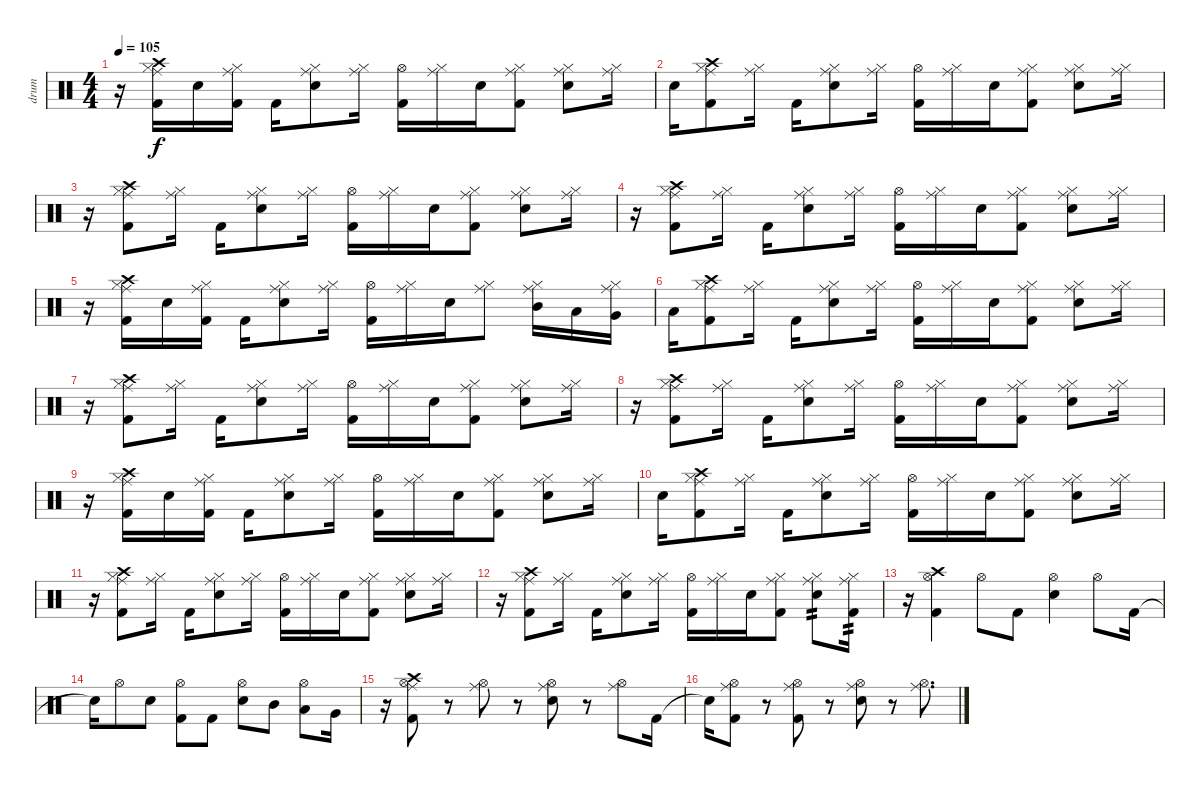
\track ("drum" "drum") {instrument percussion}
\staff {score}
\articulation defaults
\ts (4 4)
\tempo 105
\clef neutral
\ks c
r.16{dy f} ("Crash high (hit)" "Hi-Hat (closed)" "Ride (middle)" "Kick (hit) 2").16 "Electric Snare (hit)".16 ("Hi-Hat (closed)" "Ride (middle)" "Kick (hit) 2").16 "Kick (hit) 2".16 ("Hi-Hat (closed)" "Ride (middle)" "Electric Snare (hit)").8 ("Hi-Hat (closed)" "Ride (middle)").16 ("Hi-Hat (open)" "Kick (hit) 2").16 ("Hi-Hat (closed)" "Ride (middle)").16 "Electric Snare (hit)".16 ("Hi-Hat (closed)" "Ride (middle)" "Kick (hit) 2").8 ("Hi-Hat (closed)" "Ride (middle)" "Electric Snare (hit)").8 ("Hi-Hat (closed)" "Ride (middle)").16 |
"Electric Snare (hit)".16 ("Crash high (hit)" "Hi-Hat (closed)" "Ride (middle)" "Kick (hit) 2").8 ("Hi-Hat (closed)" "Ride (middle)").16 "Kick (hit) 2".16 ("Hi-Hat (closed)" "Ride (middle)" "Electric Snare (hit)").8 ("Hi-Hat (closed)" "Ride (middle)").16 ("Hi-Hat (open)" "Kick (hit) 2").16 ("Hi-Hat (closed)" "Ride (middle)").16 "Electric Snare (hit)".16 ("Hi-Hat (closed)" "Ride (middle)" "Kick (hit) 2").8 ("Hi-Hat (closed)" "Ride (middle)" "Electric Snare (hit)").8 ("Hi-Hat (closed)" "Ride (middle)").16 |
r.16 ("Crash high (hit)" "Hi-Hat (closed)" "Ride (middle)" "Kick (hit) 2").8 ("Hi-Hat (closed)" "Ride (middle)").16 "Kick (hit) 2".16 ("Hi-Hat (closed)" "Ride (middle)" "Electric Snare (hit)").8 ("Hi-Hat (closed)" "Ride (middle)").16 ("Hi-Hat (open)" "Kick (hit) 2").16 ("Hi-Hat (closed)" "Ride (middle)").16 "Electric Snare (hit)".16 ("Hi-Hat (closed)" "Ride (middle)" "Kick (hit) 2").8 ("Hi-Hat (closed)" "Ride (middle)" "Electric Snare (hit)").8 ("Hi-Hat (closed)" "Ride (middle)").16 |
r.16 ("Crash high (hit)" "Hi-Hat (closed)" "Ride (middle)" "Kick (hit) 2").8 ("Hi-Hat (closed)" "Ride (middle)").16 "Kick (hit) 2".16 ("Hi-Hat (closed)" "Ride (middle)" "Electric Snare (hit)").8 ("Hi-Hat (closed)" "Ride (middle)").16 ("Hi-Hat (open)" "Kick (hit) 2").16 ("Hi-Hat (closed)" "Ride (middle)").16 "Electric Snare (hit)".16 ("Hi-Hat (closed)" "Ride (middle)" "Kick (hit) 2").8 ("Hi-Hat (closed)" "Ride (middle)" "Electric Snare (hit)").8 ("Hi-Hat (closed)" "Ride (middle)").16 |
r.16 ("Crash high (hit)" "Hi-Hat (closed)" "Ride (middle)" "Kick (hit) 2").16 "Electric Snare (hit)".16 ("Hi-Hat (closed)" "Ride (middle)" "Kick (hit) 2").16 "Kick (hit) 2".16 ("Hi-Hat (closed)" "Ride (middle)" "Electric Snare (hit)").8 ("Hi-Hat (closed)" "Ride (middle)").16 ("Hi-Hat (open)" "Kick (hit) 2").16 ("Hi-Hat (closed)" "Ride (middle)").16 "Electric Snare (hit)".16 ("Hi-Hat (closed)" "Ride (middle)").8 ("Hi-Hat (closed)" "Ride (middle)" "Mid Tom (hit)").16 "Low Tom (hit)".16 ("Hi-Hat (closed)" "Ride (middle)" "Very Low Tom (hit)").16 |
"Low Floor Tom (hit)".16 ("Crash high (hit)" "Hi-Hat (closed)" "Ride (middle)" "Kick (hit) 2").8 ("Hi-Hat (closed)" "Ride (middle)").16 "Kick (hit) 2".16 ("Hi-Hat (closed)" "Ride (middle)" "Electric Snare (hit)").8 ("Hi-Hat (closed)" "Ride (middle)").16 ("Hi-Hat (open)" "Kick (hit) 2").16 ("Hi-Hat (closed)" "Ride (middle)").16 "Electric Snare (hit)".16 ("Hi-Hat (closed)" "Ride (middle)" "Kick (hit) 2").8 ("Hi-Hat (closed)" "Ride (middle)" "Electric Snare (hit)").8 ("Hi-Hat (closed)" "Ride (middle)").16 |
r.16 ("Crash high (hit)" "Hi-Hat (closed)" "Ride (middle)" "Kick (hit) 2").8 ("Hi-Hat (closed)" "Ride (middle)").16 "Kick (hit) 2".16 ("Hi-Hat (closed)" "Ride (middle)" "Electric Snare (hit)").8 ("Hi-Hat (closed)" "Ride (middle)").16 ("Hi-Hat (open)" "Kick (hit) 2").16 ("Hi-Hat (closed)" "Ride (middle)").16 "Electric Snare (hit)".16 ("Hi-Hat (closed)" "Ride (middle)" "Kick (hit) 2").8 ("Hi-Hat (closed)" "Ride (middle)" "Electric Snare (hit)").8 ("Hi-Hat (closed)" "Ride (middle)").16 |
r.16 ("Crash high (hit)" "Hi-Hat (closed)" "Ride (middle)" "Kick (hit) 2").8 ("Hi-Hat (closed)" "Ride (middle)").16 "Kick (hit) 2".16 ("Hi-Hat (closed)" "Ride (middle)" "Electric Snare (hit)").8 ("Hi-Hat (closed)" "Ride (middle)").16 ("Hi-Hat (open)" "Kick (hit) 2").16 ("Hi-Hat (closed)" "Ride (middle)").16 "Electric Snare (hit)".16 ("Hi-Hat (closed)" "Ride (middle)" "Kick (hit) 2").8 ("Hi-Hat (closed)" "Ride (middle)" "Electric Snare (hit)").8 ("Hi-Hat (closed)" "Ride (middle)").16 |
r.16 ("Crash high (hit)" "Hi-Hat (closed)" "Ride (middle)" "Kick (hit) 2").16 "Electric Snare (hit)".16 ("Hi-Hat (closed)" "Ride (middle)" "Kick (hit) 2").16 "Kick (hit) 2".16 ("Hi-Hat (closed)" "Ride (middle)" "Electric Snare (hit)").8 ("Hi-Hat (closed)" "Ride (middle)").16 ("Hi-Hat (open)" "Kick (hit) 2").16 ("Hi-Hat (closed)" "Ride (middle)").16 "Electric Snare (hit)".16 ("Hi-Hat (closed)" "Ride (middle)" "Kick (hit) 2").8 ("Hi-Hat (closed)" "Ride (middle)" "Electric Snare (hit)").8 ("Hi-Hat (closed)" "Ride (middle)").16 |
"Electric Snare (hit)".16 ("Crash high (hit)" "Hi-Hat (closed)" "Ride (middle)" "Kick (hit) 2").8 ("Hi-Hat (closed)" "Ride (middle)").16 "Kick (hit) 2".16 ("Hi-Hat (closed)" "Ride (middle)" "Electric Snare (hit)").8 ("Hi-Hat (closed)" "Ride (middle)").16 ("Hi-Hat (open)" "Kick (hit) 2").16 ("Hi-Hat (closed)" "Ride (middle)").16 "Electric Snare (hit)".16 ("Hi-Hat (closed)" "Ride (middle)" "Kick (hit) 2").8 ("Hi-Hat (closed)" "Ride (middle)" "Electric Snare (hit)").8 ("Hi-Hat (closed)" "Ride (middle)").16 |
r.16 ("Crash high (hit)" "Hi-Hat (closed)" "Ride (middle)" "Kick (hit) 2").8 ("Hi-Hat (closed)" "Ride (middle)").16 "Kick (hit) 2".16 ("Hi-Hat (closed)" "Ride (middle)" "Electric Snare (hit)").8 ("Hi-Hat (closed)" "Ride (middle)").16 ("Hi-Hat (open)" "Kick (hit) 2").16 ("Hi-Hat (closed)" "Ride (middle)").16 "Electric Snare (hit)".16 ("Hi-Hat (closed)" "Ride (middle)" "Kick (hit) 2").8 ("Hi-Hat (closed)" "Ride (middle)" "Electric Snare (hit)").8 ("Hi-Hat (closed)" "Ride (middle)").16 |
r.16 ("Crash high (hit)" "Hi-Hat (closed)" "Ride (middle)" "Kick (hit) 2").8 ("Hi-Hat (closed)" "Ride (middle)").16 "Kick (hit) 2".16 ("Hi-Hat (closed)" "Ride (middle)" "Electric Snare (hit)").8 ("Hi-Hat (closed)" "Ride (middle)").16 ("Hi-Hat (open)" "Kick (hit) 2").16 ("Hi-Hat (closed)" "Ride (middle)").16 "Electric Snare (hit)".16 ("Hi-Hat (closed)" "Ride (middle)" "Kick (hit) 2").8 ("Hi-Hat (closed)" "Ride (middle)" "Electric Snare (hit)").8{tp 2} ("Hi-Hat (closed)" "Ride (middle)" "Kick (hit) 2").16{tp 2} |
r.16 ("Crash high (hit)" "Hi-Hat (open)" "Kick (hit) 2").4 "Hi-Hat (open)".8 "Kick (hit) 2".8 ("Hi-Hat (open)" "Electric Snare (hit)").4 "Hi-Hat (open)".8 "Kick (hit) 2".16 |
"Snare (hit)"{t}.16 "Hi-Hat (open)".8 "Electric Snare (hit)".8 ("Hi-Hat (open)" "Kick (hit) 2").8 "Kick (hit) 2".8 ("Hi-Hat (open)" "Electric Snare (hit)").8 "Mid Tom (hit)".8 ("Hi-Hat (open)" "Low Tom (hit)").8 "Very Low Tom (hit)".16 |
r.16 ("Crash high (hit)" "Hi-Hat (open)" "Ride (middle)" "Kick (hit) 2").8 r.8 ("Hi-Hat (open)" "Ride (middle)").8 r.8 ("Hi-Hat (open)" "Ride (middle)" "Electric Snare (hit)").8 r.8 ("Hi-Hat (open)" "Ride (middle)").8 "Kick (hit) 2".16 |
"Snare (hit)"{t}.16 ("Hi-Hat (open)" "Ride (middle)" "Kick (hit) 2").8 r.8 ("Hi-Hat (open)" "Ride (middle)" "Kick (hit) 2").8 r.8 ("Hi-Hat (open)" "Ride (middle)" "Electric Snare (hit)").8 r.8 ("Hi-Hat (open)" "Ride (middle)").8{d}
